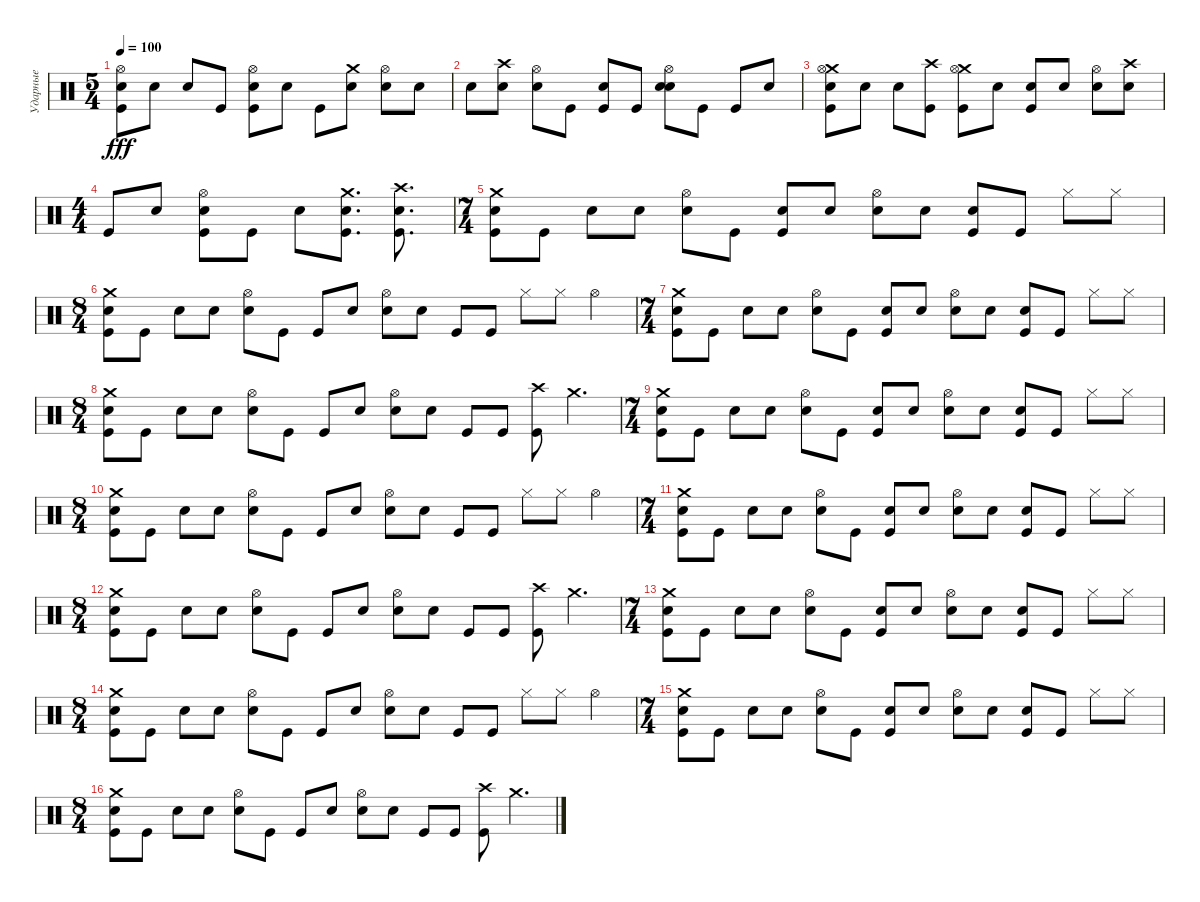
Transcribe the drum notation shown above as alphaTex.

\track ("Ударные" "Ударные") {instrument percussion}
\staff {score}
\articulation defaults
\ts (5 4)
\tempo 100
\clef neutral
\ks c
("Kick (hit)" "Snare (hit) 2" "Hi-Hat (open)").8{dy fff} "Snare (hit)".8 "Snare (hit)".8 "Kick (hit)".8 ("Kick (hit)" "Snare (hit) 2" "Hi-Hat (open)").8 "Snare (hit)".8 "Kick (hit)".8 ("Snare (hit)" "Crash medium (hit)").8 ("Snare (hit)" "Hi-Hat (open)").8 "Snare (hit)".8 |
"Snare (hit)".8 ("Snare (hit)" "Crash high (hit)").8 ("Snare (hit)" "Hi-Hat (open)").8 "Kick (hit)".8 ("Kick (hit)" "Snare (hit) 2").8 "Kick (hit)".8 ("Snare (hit)" "Snare (hit) 2" "Hi-Hat (open)").8 "Kick (hit)".8 "Kick (hit)".8 "Snare (hit)".8 |
("Kick (hit)" "Crash medium (hit)" "Snare (hit) 2" "Hi-Hat (open)").8 "Snare (hit)".8 "Snare (hit)".8 ("Kick (hit)" "Crash high (hit)").8 ("Kick (hit)" "Crash medium (hit)" "Hi-Hat (open)").8 "Snare (hit)".8 ("Kick (hit)" "Snare (hit) 2").8 "Snare (hit)".8 ("Snare (hit)" "Hi-Hat (open)").8 ("Snare (hit)" "Crash high (hit)").8 |
\ts (4 4)
"Kick (hit)".8 "Snare (hit)".8 ("Kick (hit)" "Snare (hit) 2" "Hi-Hat (open)").8 "Kick (hit)".8 "Snare (hit)".8 ("Kick (hit)" "Crash medium (hit)" "Snare (hit) 2").8{d} ("Kick (hit)" "Crash high (hit)" "Snare (hit) 2").8{d} |
\ts (7 4)
("Kick (hit)" "Snare (hit) 2" "Crash medium (hit)").8 "Kick (hit)".8 "Snare (hit)".8 "Snare (hit)".8 ("Snare (hit)" "Hi-Hat (open)").8 "Kick (hit)".8 ("Kick (hit)" "Snare (hit) 2").8 "Snare (hit)".8 ("Snare (hit)" "Hi-Hat (open)").8 "Snare (hit)".8 ("Kick (hit)" "Snare (hit) 2").8 "Kick (hit)".8 "Hi-Hat (closed)".8 "Hi-Hat (closed)".8 |
\ts (8 4)
("Kick (hit)" "Snare (hit) 2" "Crash medium (hit)").8 "Kick (hit)".8 "Snare (hit)".8 "Snare (hit)".8 ("Snare (hit)" "Hi-Hat (open)").8 "Kick (hit)".8 "Kick (hit)".8 "Snare (hit)".8 ("Snare (hit)" "Hi-Hat (open)").8 "Snare (hit)".8 "Kick (hit)".8 "Kick (hit)".8 "Hi-Hat (closed)".8 "Hi-Hat (closed)".8 "Hi-Hat (open)".4 |
\ts (7 4)
("Kick (hit)" "Snare (hit) 2" "Crash medium (hit)").8 "Kick (hit)".8 "Snare (hit)".8 "Snare (hit)".8 ("Snare (hit)" "Hi-Hat (open)").8 "Kick (hit)".8 ("Kick (hit)" "Snare (hit) 2").8 "Snare (hit)".8 ("Snare (hit)" "Hi-Hat (open)").8 "Snare (hit)".8 ("Kick (hit)" "Snare (hit) 2").8 "Kick (hit)".8 "Hi-Hat (closed)".8 "Hi-Hat (closed)".8 |
\ts (8 4)
("Kick (hit)" "Snare (hit) 2" "Crash medium (hit)").8 "Kick (hit)".8 "Snare (hit)".8 "Snare (hit)".8 ("Snare (hit)" "Hi-Hat (open)").8 "Kick (hit)".8 "Kick (hit)".8 "Snare (hit)".8 ("Snare (hit)" "Hi-Hat (open)").8 "Snare (hit)".8 "Kick (hit)".8 "Kick (hit)".8 ("Kick (hit)" "Crash high (hit)").8 "Crash medium (hit)".4{d} |
\ts (7 4)
("Kick (hit)" "Snare (hit) 2" "Crash medium (hit)").8 "Kick (hit)".8 "Snare (hit)".8 "Snare (hit)".8 ("Snare (hit)" "Hi-Hat (open)").8 "Kick (hit)".8 ("Kick (hit)" "Snare (hit) 2").8 "Snare (hit)".8 ("Snare (hit)" "Hi-Hat (open)").8 "Snare (hit)".8 ("Kick (hit)" "Snare (hit) 2").8 "Kick (hit)".8 "Hi-Hat (closed)".8 "Hi-Hat (closed)".8 |
\ts (8 4)
("Kick (hit)" "Snare (hit) 2" "Crash medium (hit)").8 "Kick (hit)".8 "Snare (hit)".8 "Snare (hit)".8 ("Snare (hit)" "Hi-Hat (open)").8 "Kick (hit)".8 "Kick (hit)".8 "Snare (hit)".8 ("Snare (hit)" "Hi-Hat (open)").8 "Snare (hit)".8 "Kick (hit)".8 "Kick (hit)".8 "Hi-Hat (closed)".8 "Hi-Hat (closed)".8 "Hi-Hat (open)".4 |
\ts (7 4)
("Kick (hit)" "Snare (hit) 2" "Crash medium (hit)").8 "Kick (hit)".8 "Snare (hit)".8 "Snare (hit)".8 ("Snare (hit)" "Hi-Hat (open)").8 "Kick (hit)".8 ("Kick (hit)" "Snare (hit) 2").8 "Snare (hit)".8 ("Snare (hit)" "Hi-Hat (open)").8 "Snare (hit)".8 ("Kick (hit)" "Snare (hit) 2").8 "Kick (hit)".8 "Hi-Hat (closed)".8 "Hi-Hat (closed)".8 |
\ts (8 4)
("Kick (hit)" "Snare (hit) 2" "Crash medium (hit)").8 "Kick (hit)".8 "Snare (hit)".8 "Snare (hit)".8 ("Snare (hit)" "Hi-Hat (open)").8 "Kick (hit)".8 "Kick (hit)".8 "Snare (hit)".8 ("Snare (hit)" "Hi-Hat (open)").8 "Snare (hit)".8 "Kick (hit)".8 "Kick (hit)".8 ("Kick (hit)" "Crash high (hit)").8 "Crash medium (hit)".4{d} |
\ts (7 4)
("Kick (hit)" "Snare (hit) 2" "Crash medium (hit)").8 "Kick (hit)".8 "Snare (hit)".8 "Snare (hit)".8 ("Snare (hit)" "Hi-Hat (open)").8 "Kick (hit)".8 ("Kick (hit)" "Snare (hit) 2").8 "Snare (hit)".8 ("Snare (hit)" "Hi-Hat (open)").8 "Snare (hit)".8 ("Kick (hit)" "Snare (hit) 2").8 "Kick (hit)".8 "Hi-Hat (closed)".8 "Hi-Hat (closed)".8 |
\ts (8 4)
("Kick (hit)" "Snare (hit) 2" "Crash medium (hit)").8 "Kick (hit)".8 "Snare (hit)".8 "Snare (hit)".8 ("Snare (hit)" "Hi-Hat (open)").8 "Kick (hit)".8 "Kick (hit)".8 "Snare (hit)".8 ("Snare (hit)" "Hi-Hat (open)").8 "Snare (hit)".8 "Kick (hit)".8 "Kick (hit)".8 "Hi-Hat (closed)".8 "Hi-Hat (closed)".8 "Hi-Hat (open)".4 |
\ts (7 4)
("Kick (hit)" "Snare (hit) 2" "Crash medium (hit)").8 "Kick (hit)".8 "Snare (hit)".8 "Snare (hit)".8 ("Snare (hit)" "Hi-Hat (open)").8 "Kick (hit)".8 ("Kick (hit)" "Snare (hit) 2").8 "Snare (hit)".8 ("Snare (hit)" "Hi-Hat (open)").8 "Snare (hit)".8 ("Kick (hit)" "Snare (hit) 2").8 "Kick (hit)".8 "Hi-Hat (closed)".8 "Hi-Hat (closed)".8 |
\ts (8 4)
("Kick (hit)" "Snare (hit) 2" "Crash medium (hit)").8 "Kick (hit)".8 "Snare (hit)".8 "Snare (hit)".8 ("Snare (hit)" "Hi-Hat (open)").8 "Kick (hit)".8 "Kick (hit)".8 "Snare (hit)".8 ("Snare (hit)" "Hi-Hat (open)").8 "Snare (hit)".8 "Kick (hit)".8 "Kick (hit)".8 ("Kick (hit)" "Crash high (hit)").8 "Crash medium (hit)".4{d}
